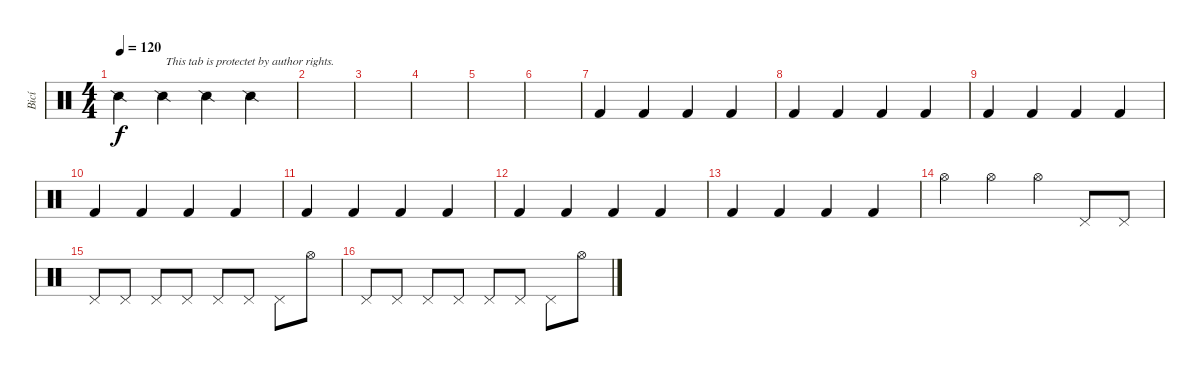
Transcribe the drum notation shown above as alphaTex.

\track ("Bicí" "Bicí") {instrument percussion}
\staff {score}
\articulation defaults
\ts (4 4)
\tempo 120
\clef neutral
\ks c "Snare (side stick) 2".4{dy f} "Snare (side stick) 2".4{txt "This tab is protectet by author rights."} "Snare (side stick) 2".4 "Snare (side stick) 2".4
|
|
|
|
|
|
"Kick (hit) 2".4 "Kick (hit) 2".4 "Kick (hit) 2".4 "Kick (hit) 2".4 |
"Kick (hit) 2".4 "Kick (hit) 2".4 "Kick (hit) 2".4 "Kick (hit) 2".4 |
"Kick (hit) 2".4 "Kick (hit) 2".4 "Kick (hit) 2".4 "Kick (hit) 2".4 |
"Kick (hit) 2".4 "Kick (hit) 2".4 "Kick (hit) 2".4 "Kick (hit) 2".4 |
"Kick (hit) 2".4 "Kick (hit) 2".4 "Kick (hit) 2".4 "Kick (hit) 2".4 |
"Kick (hit) 2".4 "Kick (hit) 2".4 "Kick (hit) 2".4 "Kick (hit) 2".4 |
"Kick (hit) 2".4 "Kick (hit) 2".4 "Kick (hit) 2".4 "Kick (hit) 2".4 |
"Hi-Hat (open)".4 "Hi-Hat (open)".4 "Hi-Hat (open)".4 "Pedal Hi-Hat (hit)".8 "Pedal Hi-Hat (hit)".8 |
"Pedal Hi-Hat (hit)".8 "Pedal Hi-Hat (hit)".8 "Pedal Hi-Hat (hit)".8 "Pedal Hi-Hat (hit)".8 "Pedal Hi-Hat (hit)".8 "Pedal Hi-Hat (hit)".8 "Pedal Hi-Hat (hit)".8 "Hi-Hat (open)".8 |
"Pedal Hi-Hat (hit)".8 "Pedal Hi-Hat (hit)".8 "Pedal Hi-Hat (hit)".8 "Pedal Hi-Hat (hit)".8 "Pedal Hi-Hat (hit)".8 "Pedal Hi-Hat (hit)".8 "Pedal Hi-Hat (hit)".8 "Hi-Hat (open)".8
